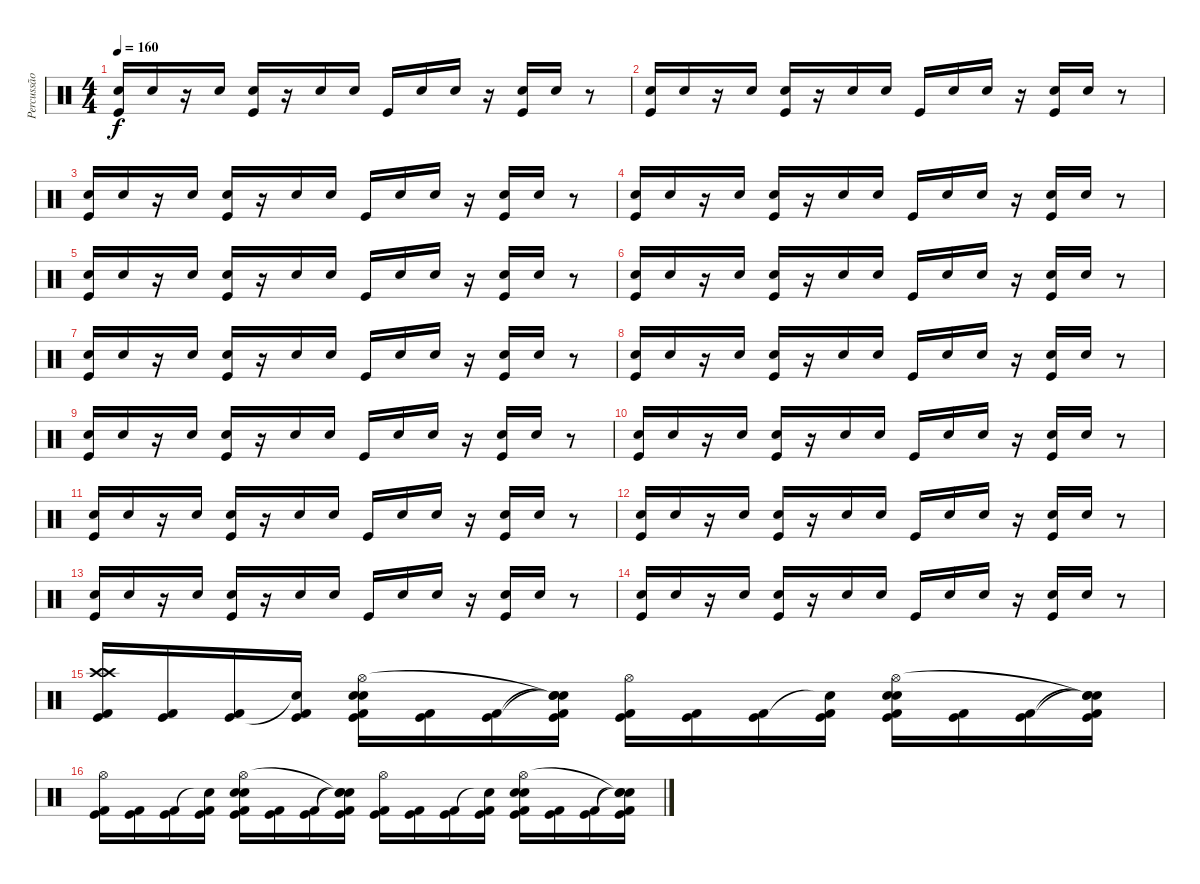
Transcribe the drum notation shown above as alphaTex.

\track ("Percussão" "Percussão") {instrument percussion}
\staff {score}
\articulation defaults
\ts (4 4)
\tempo 160
\clef neutral
\ks c
("Electric Snare (hit)" "Kick (hit)").16{dy f} "Electric Snare (hit)".16 r.16 "Electric Snare (hit)".16 ("Electric Snare (hit)" "Kick (hit)").16 r.16 "Electric Snare (hit)".16 "Electric Snare (hit)".16 "Kick (hit)".16 "Electric Snare (hit)".16 "Electric Snare (hit)".16 r.16 ("Electric Snare (hit)" "Kick (hit)").16 "Electric Snare (hit)".16 r.8 |
("Electric Snare (hit)" "Kick (hit)").16 "Electric Snare (hit)".16 r.16 "Electric Snare (hit)".16 ("Electric Snare (hit)" "Kick (hit)").16 r.16 "Electric Snare (hit)".16 "Electric Snare (hit)".16 "Kick (hit)".16 "Electric Snare (hit)".16 "Electric Snare (hit)".16 r.16 ("Electric Snare (hit)" "Kick (hit)").16 "Electric Snare (hit)".16 r.8 |
("Electric Snare (hit)" "Kick (hit)").16 "Electric Snare (hit)".16 r.16 "Electric Snare (hit)".16 ("Electric Snare (hit)" "Kick (hit)").16 r.16 "Electric Snare (hit)".16 "Electric Snare (hit)".16 "Kick (hit)".16 "Electric Snare (hit)".16 "Electric Snare (hit)".16 r.16 ("Electric Snare (hit)" "Kick (hit)").16 "Electric Snare (hit)".16 r.8 |
("Electric Snare (hit)" "Kick (hit)").16 "Electric Snare (hit)".16 r.16 "Electric Snare (hit)".16 ("Electric Snare (hit)" "Kick (hit)").16 r.16 "Electric Snare (hit)".16 "Electric Snare (hit)".16 "Kick (hit)".16 "Electric Snare (hit)".16 "Electric Snare (hit)".16 r.16 ("Electric Snare (hit)" "Kick (hit)").16 "Electric Snare (hit)".16 r.8 |
("Electric Snare (hit)" "Kick (hit)").16 "Electric Snare (hit)".16 r.16 "Electric Snare (hit)".16 ("Electric Snare (hit)" "Kick (hit)").16 r.16 "Electric Snare (hit)".16 "Electric Snare (hit)".16 "Kick (hit)".16 "Electric Snare (hit)".16 "Electric Snare (hit)".16 r.16 ("Electric Snare (hit)" "Kick (hit)").16 "Electric Snare (hit)".16 r.8 |
("Electric Snare (hit)" "Kick (hit)").16 "Electric Snare (hit)".16 r.16 "Electric Snare (hit)".16 ("Electric Snare (hit)" "Kick (hit)").16 r.16 "Electric Snare (hit)".16 "Electric Snare (hit)".16 "Kick (hit)".16 "Electric Snare (hit)".16 "Electric Snare (hit)".16 r.16 ("Electric Snare (hit)" "Kick (hit)").16 "Electric Snare (hit)".16 r.8 |
("Electric Snare (hit)" "Kick (hit)").16 "Electric Snare (hit)".16 r.16 "Electric Snare (hit)".16 ("Electric Snare (hit)" "Kick (hit)").16 r.16 "Electric Snare (hit)".16 "Electric Snare (hit)".16 "Kick (hit)".16 "Electric Snare (hit)".16 "Electric Snare (hit)".16 r.16 ("Electric Snare (hit)" "Kick (hit)").16 "Electric Snare (hit)".16 r.8 |
("Electric Snare (hit)" "Kick (hit)").16 "Electric Snare (hit)".16 r.16 "Electric Snare (hit)".16 ("Electric Snare (hit)" "Kick (hit)").16 r.16 "Electric Snare (hit)".16 "Electric Snare (hit)".16 "Kick (hit)".16 "Electric Snare (hit)".16 "Electric Snare (hit)".16 r.16 ("Electric Snare (hit)" "Kick (hit)").16 "Electric Snare (hit)".16 r.8 |
("Electric Snare (hit)" "Kick (hit)").16 "Electric Snare (hit)".16 r.16 "Electric Snare (hit)".16 ("Electric Snare (hit)" "Kick (hit)").16 r.16 "Electric Snare (hit)".16 "Electric Snare (hit)".16 "Kick (hit)".16 "Electric Snare (hit)".16 "Electric Snare (hit)".16 r.16 ("Electric Snare (hit)" "Kick (hit)").16 "Electric Snare (hit)".16 r.8 |
("Electric Snare (hit)" "Kick (hit)").16 "Electric Snare (hit)".16 r.16 "Electric Snare (hit)".16 ("Electric Snare (hit)" "Kick (hit)").16 r.16 "Electric Snare (hit)".16 "Electric Snare (hit)".16 "Kick (hit)".16 "Electric Snare (hit)".16 "Electric Snare (hit)".16 r.16 ("Electric Snare (hit)" "Kick (hit)").16 "Electric Snare (hit)".16 r.8 |
("Electric Snare (hit)" "Kick (hit)").16 "Electric Snare (hit)".16 r.16 "Electric Snare (hit)".16 ("Electric Snare (hit)" "Kick (hit)").16 r.16 "Electric Snare (hit)".16 "Electric Snare (hit)".16 "Kick (hit)".16 "Electric Snare (hit)".16 "Electric Snare (hit)".16 r.16 ("Electric Snare (hit)" "Kick (hit)").16 "Electric Snare (hit)".16 r.8 |
("Electric Snare (hit)" "Kick (hit)").16 "Electric Snare (hit)".16 r.16 "Electric Snare (hit)".16 ("Electric Snare (hit)" "Kick (hit)").16 r.16 "Electric Snare (hit)".16 "Electric Snare (hit)".16 "Kick (hit)".16 "Electric Snare (hit)".16 "Electric Snare (hit)".16 r.16 ("Electric Snare (hit)" "Kick (hit)").16 "Electric Snare (hit)".16 r.8 |
("Electric Snare (hit)" "Kick (hit)").16 "Electric Snare (hit)".16 r.16 "Electric Snare (hit)".16 ("Electric Snare (hit)" "Kick (hit)").16 r.16 "Electric Snare (hit)".16 "Electric Snare (hit)".16 "Kick (hit)".16 "Electric Snare (hit)".16 "Electric Snare (hit)".16 r.16 ("Electric Snare (hit)" "Kick (hit)").16 "Electric Snare (hit)".16 r.8 |
("Electric Snare (hit)" "Kick (hit)").16 "Electric Snare (hit)".16 r.16 "Electric Snare (hit)".16 ("Electric Snare (hit)" "Kick (hit)").16 r.16 "Electric Snare (hit)".16 "Electric Snare (hit)".16 "Kick (hit)".16 "Electric Snare (hit)".16 "Electric Snare (hit)".16 r.16 ("Electric Snare (hit)" "Kick (hit)").16 "Electric Snare (hit)".16 r.8 |
("Crash high (hit)" "Crash high (hit)" "Kick (hit)" "Kick (hit) 2").16 ("Kick (hit)" "Kick (hit) 2").16 ("Kick (hit)" "Kick (hit) 2").16 ("Snare (hit)"{t} "Kick (hit)" "Kick (hit) 2").16 ("Electric Snare (hit)" "Snare (hit) 2" "Hi-Hat (open)" "Kick (hit)" "Kick (hit) 2").16 ("Kick (hit)" "Kick (hit) 2").16 ("Kick (hit)" "Kick (hit) 2").16 ("Snare (hit)"{t} "Snare (hit)"{t} "Snare (hit)"{t} "Kick (hit)" "Kick (hit) 2").16 ("Hi-Hat (open)" "Kick (hit)" "Kick (hit) 2").16 ("Kick (hit)" "Kick (hit) 2").16 ("Kick (hit)" "Kick (hit) 2").16 ("Snare (hit)"{t} "Kick (hit)" "Kick (hit) 2").16 ("Electric Snare (hit)" "Snare (hit) 2" "Hi-Hat (open)" "Kick (hit)" "Kick (hit) 2").16 ("Kick (hit)" "Kick (hit) 2").16 ("Kick (hit)" "Kick (hit) 2").16 ("Snare (hit)"{t} "Snare (hit)"{t} "Snare (hit)"{t} "Kick (hit)" "Kick (hit) 2").16 |
("Hi-Hat (open)" "Kick (hit)" "Kick (hit) 2").16 ("Kick (hit)" "Kick (hit) 2").16 ("Kick (hit)" "Kick (hit) 2").16 ("Snare (hit)"{t} "Kick (hit)" "Kick (hit) 2").16 ("Electric Snare (hit)" "Snare (hit) 2" "Hi-Hat (open)" "Kick (hit)" "Kick (hit) 2").16 ("Kick (hit)" "Kick (hit) 2").16 ("Kick (hit)" "Kick (hit) 2").16 ("Snare (hit)"{t} "Snare (hit)"{t} "Snare (hit)"{t} "Kick (hit)" "Kick (hit) 2").16 ("Hi-Hat (open)" "Kick (hit)" "Kick (hit) 2").16 ("Kick (hit)" "Kick (hit) 2").16 ("Kick (hit)" "Kick (hit) 2").16 ("Snare (hit)"{t} "Kick (hit)" "Kick (hit) 2").16 ("Electric Snare (hit)" "Snare (hit) 2" "Hi-Hat (open)" "Kick (hit)" "Kick (hit) 2").16 ("Kick (hit)" "Kick (hit) 2").16 ("Kick (hit)" "Kick (hit) 2").16 ("Snare (hit)"{t} "Snare (hit)"{t} "Snare (hit)"{t} "Kick (hit)" "Kick (hit) 2").16
